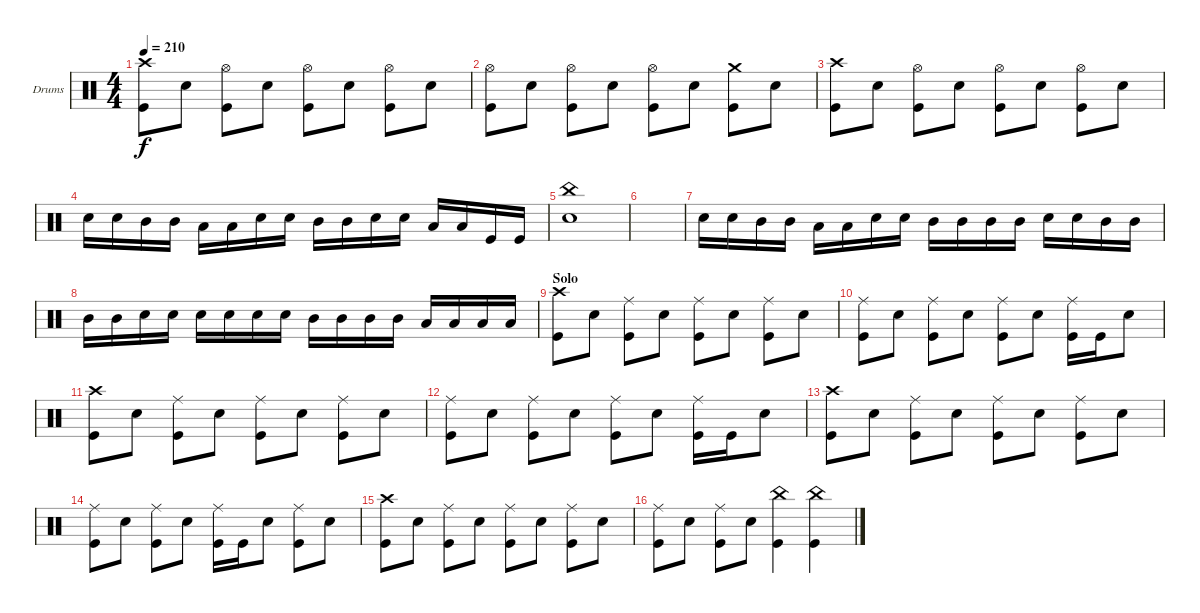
\defaultSystemsLayout 4
\bracketExtendMode groupsimilarinstruments
\firstSystemTrackNameOrientation horizontal
\otherSystemsTrackNameOrientation horizontal
\track ("Markus Freiwald" "Drums") {instrument percussion}
\staff {score}
\articulation defaults
\ts (4 4)
\tempo 210
\clef neutral
\scale
0.5
\ks c
("Crash high (hit)" "Kick (hit)").8{dy f} "Snare (hit) 2".8 ("Hi-Hat (open)" "Kick (hit)").8 "Snare (hit) 2".8 ("Hi-Hat (open)" "Kick (hit)").8 "Snare (hit) 2".8 ("Hi-Hat (open)" "Kick (hit)").8 "Snare (hit) 2".8 |
\scale
0.5 ("Hi-Hat (open)" "Kick (hit)").8 "Snare (hit) 2".8 ("Hi-Hat (open)" "Kick (hit)").8 "Snare (hit) 2".8 ("Hi-Hat (open)" "Kick (hit)").8 "Snare (hit) 2".8 ("Crash medium (hit)" "Kick (hit)").8 "Snare (hit) 2".8 |
\scale
0.5 ("Crash high (hit)" "Kick (hit)").8 "Snare (hit) 2".8 ("Hi-Hat (open)" "Kick (hit)").8 "Snare (hit) 2".8 ("Hi-Hat (open)" "Kick (hit)").8 "Snare (hit) 2".8 ("Hi-Hat (open)" "Kick (hit)").8 "Snare (hit) 2".8 |
\scale
0.5 "Snare (hit) 2".16 "Snare (hit) 2".16 "Mid Tom (hit)".16 "Mid Tom (hit)".16 "Low Tom (hit)".16 "Low Tom (hit)".16 "Snare (hit) 2".16 "Snare (hit) 2".16 "Mid Tom (hit)".16 "Mid Tom (hit)".16 "Snare (hit) 2".16 "Snare (hit) 2".16 "Low Tom (hit)".16 "Low Tom (hit)".16 "Kick (hit)".16 "Kick (hit)".16 |
\scale
0.5 ("Snare (hit) 2" "China (hit)").1 |
\scale
0.5 |
\scale
0.5 "Snare (hit) 2".16 "Snare (hit) 2".16 "Mid Tom (hit)".16 "Mid Tom (hit)".16 "Low Tom (hit)".16 "Low Tom (hit)".16 "Snare (hit) 2".16 "Snare (hit) 2".16 "Mid Tom (hit)".16 "Mid Tom (hit)".16 "Mid Tom (hit)".16 "Mid Tom (hit)".16 "Snare (hit) 2".16 "Snare (hit) 2".16 "Mid Tom (hit)".16 "Mid Tom (hit)".16 |
\scale
0.5 "Mid Tom (hit)".16 "Mid Tom (hit)".16 "Snare (hit) 2".16 "Snare (hit) 2".16 "Snare (hit) 2".16 "Snare (hit) 2".16 "Snare (hit) 2".16 "Snare (hit) 2".16 "Mid Tom (hit)".16 "Mid Tom (hit)".16 "Mid Tom (hit)".16 "Mid Tom (hit)".16 "Low Tom (hit)".16 "Low Tom (hit)".16 "Low Tom (hit)".16 "Low Tom (hit)".16 |
\section ("" "Solo")
\scale
0.5 ("Crash high (hit)" "Kick (hit)").8 "Snare (hit) 2".8 ("Ride (middle)" "Kick (hit)").8 "Snare (hit) 2".8 ("Ride (middle)" "Kick (hit)").8 "Snare (hit) 2".8 ("Ride (middle)" "Kick (hit)").8 "Snare (hit) 2".8 |
\scale
0.5 ("Ride (middle)" "Kick (hit)").8 "Snare (hit) 2".8 ("Ride (middle)" "Kick (hit)").8 "Snare (hit) 2".8 ("Ride (middle)" "Kick (hit)").8 "Snare (hit) 2".8 ("Ride (middle)" "Kick (hit)").16 "Kick (hit)".16 "Snare (hit) 2".8 |
\scale
0.5 ("Crash high (hit)" "Kick (hit)").8 "Snare (hit) 2".8 ("Ride (middle)" "Kick (hit)").8 "Snare (hit) 2".8 ("Ride (middle)" "Kick (hit)").8 "Snare (hit) 2".8 ("Ride (middle)" "Kick (hit)").8 "Snare (hit) 2".8 |
\scale
0.5 ("Ride (middle)" "Kick (hit)").8 "Snare (hit) 2".8 ("Ride (middle)" "Kick (hit)").8 "Snare (hit) 2".8 ("Ride (middle)" "Kick (hit)").8 "Snare (hit) 2".8 ("Ride (middle)" "Kick (hit)").16 "Kick (hit)".16 "Snare (hit) 2".8 |
\scale
0.5 ("Crash high (hit)" "Kick (hit)").8 "Snare (hit) 2".8 ("Ride (middle)" "Kick (hit)").8 "Snare (hit) 2".8 ("Ride (middle)" "Kick (hit)").8 "Snare (hit) 2".8 ("Ride (middle)" "Kick (hit)").8 "Snare (hit) 2".8 |
\scale
0.5 ("Ride (middle)" "Kick (hit)").8 "Snare (hit) 2".8 ("Ride (middle)" "Kick (hit)").8 "Snare (hit) 2".8 ("Ride (middle)" "Kick (hit)").16 "Kick (hit)".16 "Snare (hit) 2".8 ("Ride (middle)" "Kick (hit)").8 "Snare (hit) 2".8 |
\scale
0.5 ("Crash high (hit)" "Kick (hit)").8 "Snare (hit) 2".8 ("Ride (middle)" "Kick (hit)").8 "Snare (hit) 2".8 ("Ride (middle)" "Kick (hit)").8 "Snare (hit) 2".8 ("Ride (middle)" "Kick (hit)").8 "Snare (hit) 2".8 |
\scale
0.5 ("Ride (middle)" "Kick (hit)").8 "Snare (hit) 2".8 ("Ride (middle)" "Kick (hit)").8 "Snare (hit) 2".8 ("Kick (hit)" "China (hit)").4 ("China (hit)" "Kick (hit)").4
